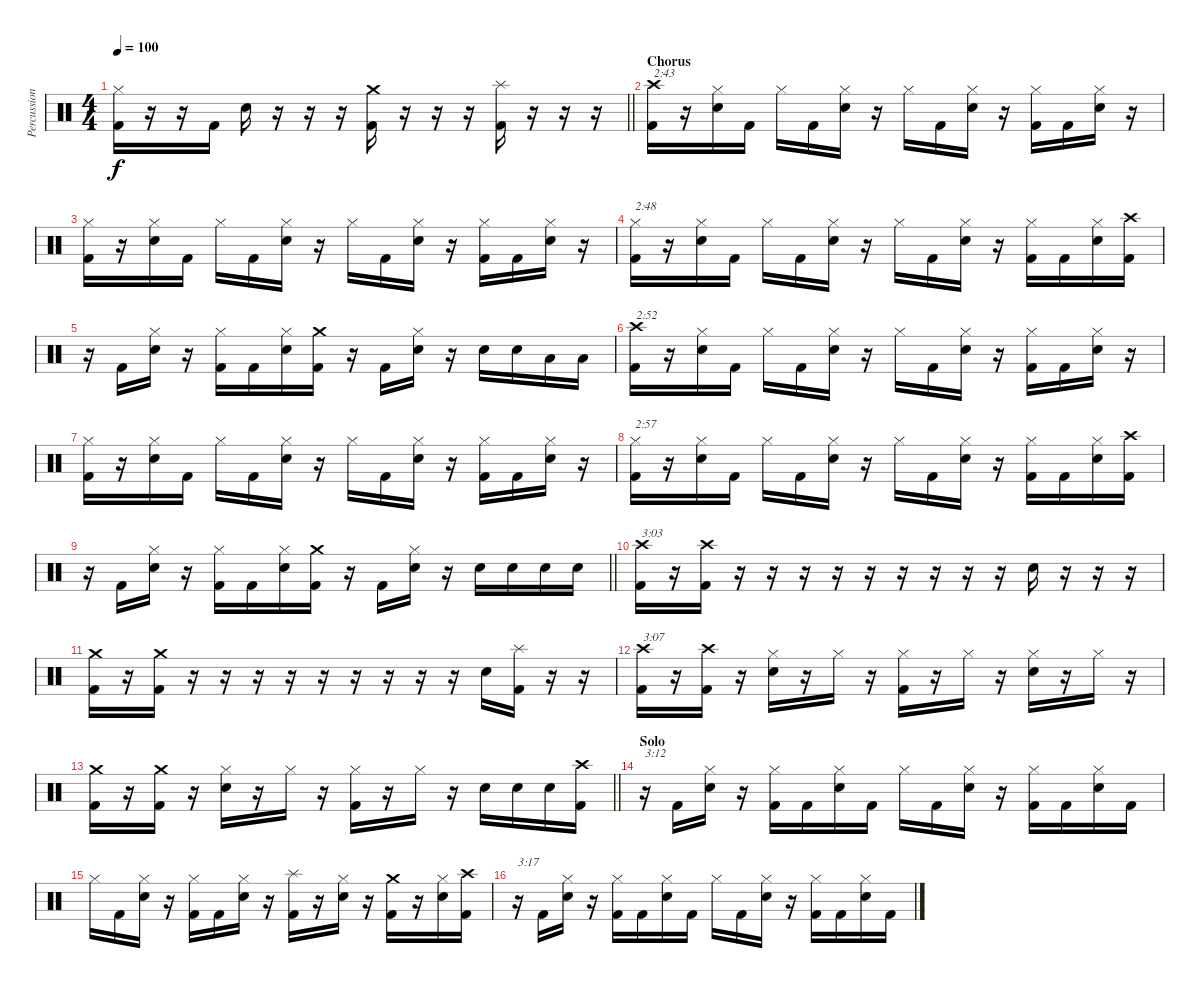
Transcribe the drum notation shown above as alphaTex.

\track ("Percussion" "Percussion") {instrument percussion}
\staff {score}
\articulation defaults
\ts (4 4)
\tempo 100
\clef neutral
\barLineRight lightlight
\ks c
("Hi-Hat (closed)" "Kick (hit) 2").16{dy f} r.16 r.16 "Kick (hit) 2".16 "Electric Snare (hit)".16 r.16 r.16 r.16 ("Crash medium (hit)" "Kick (hit) 2").16 r.16 r.16 r.16 ("Splash (hit)" "Kick (hit) 2").16 r.16 r.16 r.16 |
\section ("" "Chorus")
("Crash high (hit)" "Kick (hit) 2").16{txt "2:43"} r.16 ("Hi-Hat (closed)" "Electric Snare (hit)").16 "Kick (hit) 2".16 "Hi-Hat (closed)".16 "Kick (hit) 2".16 ("Hi-Hat (closed)" "Electric Snare (hit)").16 r.16 "Hi-Hat (closed)".16 "Kick (hit) 2".16 ("Hi-Hat (closed)" "Electric Snare (hit)").16 r.16 ("Hi-Hat (closed)" "Kick (hit) 2").16 "Kick (hit) 2".16 ("Hi-Hat (closed)" "Electric Snare (hit)").16 r.16 |
("Hi-Hat (closed)" "Kick (hit) 2").16 r.16 ("Hi-Hat (closed)" "Electric Snare (hit)").16 "Kick (hit) 2".16 "Hi-Hat (closed)".16 "Kick (hit) 2".16 ("Hi-Hat (closed)" "Electric Snare (hit)").16 r.16 "Hi-Hat (closed)".16 "Kick (hit) 2".16 ("Hi-Hat (closed)" "Electric Snare (hit)").16 r.16 ("Hi-Hat (closed)" "Kick (hit) 2").16 "Kick (hit) 2".16 ("Hi-Hat (closed)" "Electric Snare (hit)").16 r.16 |
("Hi-Hat (closed)" "Kick (hit) 2").16{txt "2:48"} r.16 ("Hi-Hat (closed)" "Electric Snare (hit)").16 "Kick (hit) 2".16 "Hi-Hat (closed)".16 "Kick (hit) 2".16 ("Hi-Hat (closed)" "Electric Snare (hit)").16 r.16 "Hi-Hat (closed)".16 "Kick (hit) 2".16 ("Hi-Hat (closed)" "Electric Snare (hit)").16 r.16 ("Hi-Hat (closed)" "Kick (hit) 2").16 "Kick (hit) 2".16 ("Hi-Hat (closed)" "Electric Snare (hit)").16 ("Crash high (hit)" "Kick (hit) 2").16 |
r.16 "Kick (hit) 2".16 ("Hi-Hat (closed)" "Electric Snare (hit)").16 r.16 ("Hi-Hat (closed)" "Kick (hit) 2").16 "Kick (hit) 2".16 ("Hi-Hat (closed)" "Electric Snare (hit)").16 ("Crash medium (hit)" "Kick (hit) 2").16 r.16 "Kick (hit) 2".16 ("Hi-Hat (closed)" "Electric Snare (hit)").16 r.16 "Electric Snare (hit)".16 "Electric Snare (hit)".16 "Low Tom (hit)".16 "Low Tom (hit)".16 |
("Crash high (hit)" "Kick (hit) 2").16{txt "2:52"} r.16 ("Hi-Hat (closed)" "Electric Snare (hit)").16 "Kick (hit) 2".16 "Hi-Hat (closed)".16 "Kick (hit) 2".16 ("Hi-Hat (closed)" "Electric Snare (hit)").16 r.16 "Hi-Hat (closed)".16 "Kick (hit) 2".16 ("Hi-Hat (closed)" "Electric Snare (hit)").16 r.16 ("Hi-Hat (closed)" "Kick (hit) 2").16 "Kick (hit) 2".16 ("Hi-Hat (closed)" "Electric Snare (hit)").16 r.16 |
("Hi-Hat (closed)" "Kick (hit) 2").16 r.16 ("Hi-Hat (closed)" "Electric Snare (hit)").16 "Kick (hit) 2".16 "Hi-Hat (closed)".16 "Kick (hit) 2".16 ("Hi-Hat (closed)" "Electric Snare (hit)").16 r.16 "Hi-Hat (closed)".16 "Kick (hit) 2".16 ("Hi-Hat (closed)" "Electric Snare (hit)").16 r.16 ("Hi-Hat (closed)" "Kick (hit) 2").16 "Kick (hit) 2".16 ("Hi-Hat (closed)" "Electric Snare (hit)").16 r.16 |
("Hi-Hat (closed)" "Kick (hit) 2").16{txt "2:57"} r.16 ("Hi-Hat (closed)" "Electric Snare (hit)").16 "Kick (hit) 2".16 "Hi-Hat (closed)".16 "Kick (hit) 2".16 ("Hi-Hat (closed)" "Electric Snare (hit)").16 r.16 "Hi-Hat (closed)".16 "Kick (hit) 2".16 ("Hi-Hat (closed)" "Electric Snare (hit)").16 r.16 ("Hi-Hat (closed)" "Kick (hit) 2").16 "Kick (hit) 2".16 ("Hi-Hat (closed)" "Electric Snare (hit)").16 ("Crash high (hit)" "Kick (hit) 2").16 |
\barLineRight lightlight
r.16 "Kick (hit) 2".16 ("Hi-Hat (closed)" "Electric Snare (hit)").16 r.16 ("Hi-Hat (closed)" "Kick (hit) 2").16 "Kick (hit) 2".16 ("Hi-Hat (closed)" "Electric Snare (hit)").16 ("Crash medium (hit)" "Kick (hit) 2").16 r.16 "Kick (hit) 2".16 ("Hi-Hat (closed)" "Electric Snare (hit)").16 r.16 "Electric Snare (hit)".16 "Electric Snare (hit)".16 "Electric Snare (hit)".16 "Electric Snare (hit)".16 |
("Crash high (hit)" "Kick (hit) 2").16{txt "3:03"} r.16 ("Crash high (hit)" "Kick (hit) 2").16 r.16 r.16 r.16 r.16 r.16 r.16 r.16 r.16 r.16 "Electric Snare (hit)".16 r.16 r.16 r.16 |
("Crash medium (hit)" "Kick (hit) 2").16 r.16 ("Crash medium (hit)" "Kick (hit) 2").16 r.16 r.16 r.16 r.16 r.16 r.16 r.16 r.16 r.16 "Electric Snare (hit)".16 ("Splash (hit)" "Kick (hit) 2").16 r.16 r.16 |
("Crash high (hit)" "Kick (hit) 2").16{txt "3:07"} r.16 ("Crash high (hit)" "Kick (hit) 2").16 r.16 ("Hi-Hat (closed)" "Electric Snare (hit)").16 r.16 "Hi-Hat (closed)".16 r.16 ("Hi-Hat (closed)" "Kick (hit) 2").16 r.16 "Hi-Hat (closed)".16 r.16 ("Hi-Hat (closed)" "Electric Snare (hit)").16 r.16 "Hi-Hat (closed)".16 r.16 |
\barLineRight lightlight
("Crash medium (hit)" "Kick (hit) 2").16 r.16 ("Crash medium (hit)" "Kick (hit) 2").16 r.16 ("Hi-Hat (closed)" "Electric Snare (hit)").16 r.16 "Hi-Hat (closed)".16 r.16 ("Hi-Hat (closed)" "Kick (hit) 2").16 r.16 "Hi-Hat (closed)".16 r.16 "Electric Snare (hit)".16 "Electric Snare (hit)".16 "Electric Snare (hit)".16 ("Crash high (hit)" "Kick (hit) 2").16 |
\section ("" "Solo")
r.16{txt "3:12"} "Kick (hit) 2".16 ("Hi-Hat (closed)" "Electric Snare (hit)").16 r.16 ("Hi-Hat (closed)" "Kick (hit) 2").16 "Kick (hit) 2".16 ("Hi-Hat (closed)" "Electric Snare (hit)").16 "Kick (hit) 2".16 "Hi-Hat (closed)".16 "Kick (hit) 2".16 ("Hi-Hat (closed)" "Electric Snare (hit)").16 r.16 ("Hi-Hat (closed)" "Kick (hit) 2").16 "Kick (hit) 2".16 ("Hi-Hat (closed)" "Electric Snare (hit)").16 "Kick (hit) 2".16 |
"Hi-Hat (closed)".16 "Kick (hit) 2".16 ("Hi-Hat (closed)" "Electric Snare (hit)").16 r.16 ("Hi-Hat (closed)" "Kick (hit) 2").16 "Kick (hit) 2".16 ("Hi-Hat (closed)" "Electric Snare (hit)").16 r.16 ("Splash (hit)" "Kick (hit) 2").16 r.16 ("Hi-Hat (closed)" "Electric Snare (hit)").16 r.16 ("Crash medium (hit)" "Kick (hit) 2").16 r.16 ("Hi-Hat (closed)" "Electric Snare (hit)").16 ("Crash high (hit)" "Kick (hit) 2").16 |
r.16{txt "3:17"} "Kick (hit) 2".16 ("Hi-Hat (closed)" "Electric Snare (hit)").16 r.16 ("Hi-Hat (closed)" "Kick (hit) 2").16 "Kick (hit) 2".16 ("Hi-Hat (closed)" "Electric Snare (hit)").16 "Kick (hit) 2".16 "Hi-Hat (closed)".16 "Kick (hit) 2".16 ("Hi-Hat (closed)" "Electric Snare (hit)").16 r.16 ("Hi-Hat (closed)" "Kick (hit) 2").16 "Kick (hit) 2".16 ("Hi-Hat (closed)" "Electric Snare (hit)").16 "Kick (hit) 2".16
